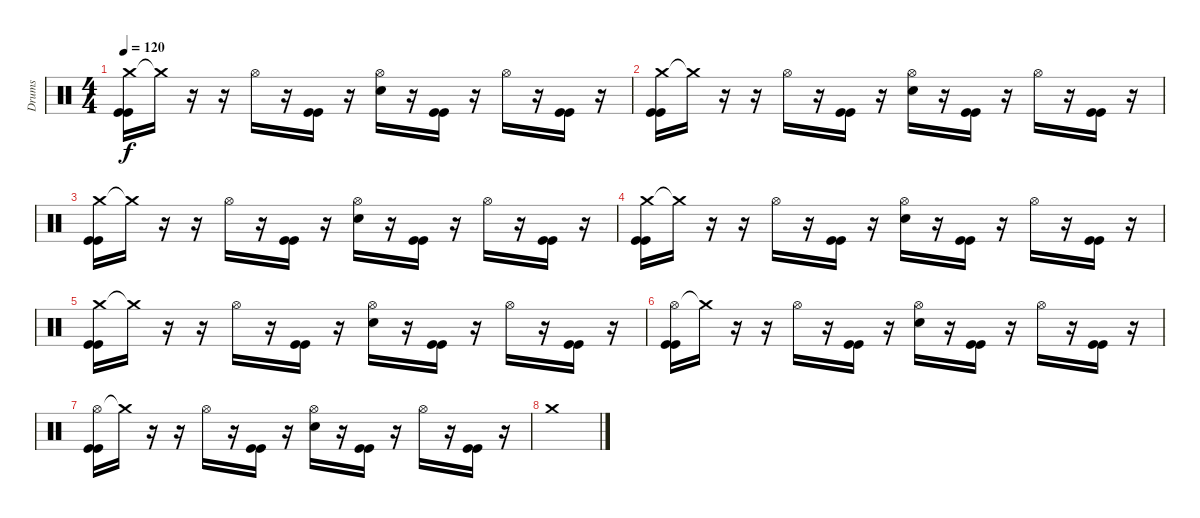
\track ("Drums" "Drums") {instrument percussion}
\staff {score}
\articulation defaults
\ts (4 4)
\tempo 120
\clef neutral
\ks c
("Crash medium (hit)" "Kick (hit)" "Kick (hit)").16{dy f} "Crash medium (hit)"{t}.16 r.16 r.16 "Hi-Hat (open)".16 r.16 ("Kick (hit)" "Kick (hit)").16 r.16 ("Hi-Hat (open)" "Electric Snare (hit)").16 r.16 ("Kick (hit)" "Kick (hit)").16 r.16 "Hi-Hat (open)".16 r.16 ("Kick (hit)" "Kick (hit)").16 r.16 |
("Crash medium (hit)" "Kick (hit)" "Kick (hit)").16 "Crash medium (hit)"{t}.16 r.16 r.16 "Hi-Hat (open)".16 r.16 ("Kick (hit)" "Kick (hit)").16 r.16 ("Hi-Hat (open)" "Electric Snare (hit)").16 r.16 ("Kick (hit)" "Kick (hit)").16 r.16 "Hi-Hat (open)".16 r.16 ("Kick (hit)" "Kick (hit)").16 r.16 |
("Crash medium (hit)" "Kick (hit)" "Kick (hit)").16 "Crash medium (hit)"{t}.16 r.16 r.16 "Hi-Hat (open)".16 r.16 ("Kick (hit)" "Kick (hit)").16 r.16 ("Hi-Hat (open)" "Electric Snare (hit)").16 r.16 ("Kick (hit)" "Kick (hit)").16 r.16 "Hi-Hat (open)".16 r.16 ("Kick (hit)" "Kick (hit)").16 r.16 |
("Crash medium (hit)" "Kick (hit)" "Kick (hit)").16 "Crash medium (hit)"{t}.16 r.16 r.16 "Hi-Hat (open)".16 r.16 ("Kick (hit)" "Kick (hit)").16 r.16 ("Hi-Hat (open)" "Electric Snare (hit)").16 r.16 ("Kick (hit)" "Kick (hit)").16 r.16 "Hi-Hat (open)".16 r.16 ("Kick (hit)" "Kick (hit)").16 r.16 |
("Crash medium (hit)" "Kick (hit)" "Kick (hit)").16 "Crash medium (hit)"{t}.16 r.16 r.16 "Hi-Hat (open)".16 r.16 ("Kick (hit)" "Kick (hit)").16 r.16 ("Hi-Hat (open)" "Electric Snare (hit)").16 r.16 ("Kick (hit)" "Kick (hit)").16 r.16 "Hi-Hat (open)".16 r.16 ("Kick (hit)" "Kick (hit)").16 r.16 |
("Hi-Hat (open)" "Kick (hit)" "Kick (hit)").16 "Crash medium (hit)"{t}.16 r.16 r.16 "Hi-Hat (open)".16 r.16 ("Kick (hit)" "Kick (hit)").16 r.16 ("Hi-Hat (open)" "Electric Snare (hit)").16 r.16 ("Kick (hit)" "Kick (hit)").16 r.16 "Hi-Hat (open)".16 r.16 ("Kick (hit)" "Kick (hit)").16 r.16 |
("Hi-Hat (open)" "Kick (hit)" "Kick (hit)").16 "Crash medium (hit)"{t}.16 r.16 r.16 "Hi-Hat (open)".16 r.16 ("Kick (hit)" "Kick (hit)").16 r.16 ("Hi-Hat (open)" "Electric Snare (hit)").16 r.16 ("Kick (hit)" "Kick (hit)").16 r.16 "Hi-Hat (open)".16 r.16 ("Kick (hit)" "Kick (hit)").16 r.16 |
"Crash medium (hit)".1
